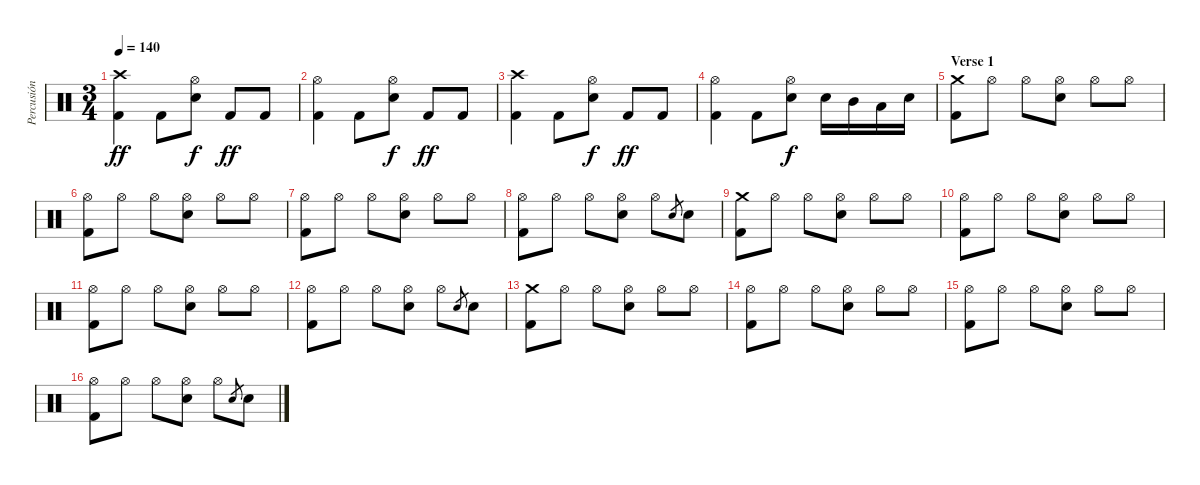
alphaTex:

\track ("Percusión" "Percusión") {instrument percussion}
\staff {score}
\articulation defaults
\ts (3 4)
\tempo 140
\clef neutral
\ks c
("Crash high (hit)" "Kick (hit) 2").4{dy ff} "Kick (hit) 2".8 ("Hi-Hat (open)" "Electric Snare (hit)").8{dy f} "Kick (hit) 2".8{dy ff} "Kick (hit) 2".8 |
("Hi-Hat (open)" "Kick (hit) 2").4 "Kick (hit) 2".8 ("Hi-Hat (open)" "Electric Snare (hit)").8{dy f} "Kick (hit) 2".8{dy ff} "Kick (hit) 2".8 |
("Crash high (hit)" "Kick (hit) 2").4 "Kick (hit) 2".8 ("Hi-Hat (open)" "Electric Snare (hit)").8{dy f} "Kick (hit) 2".8{dy ff} "Kick (hit) 2".8 |
("Hi-Hat (open)" "Kick (hit) 2").4 "Kick (hit) 2".8 ("Hi-Hat (open)" "Electric Snare (hit)").8{dy f} "Electric Snare (hit)".16 "Mid Tom (hit)".16 "Low Tom (hit)".16 "Electric Snare (hit)".16 |
\section ("" "Verse 1")
("Crash medium (hit)" "Kick (hit) 2").8 "Hi-Hat (open)".8 "Hi-Hat (open)".8 ("Hi-Hat (open)" "Electric Snare (hit)").8 "Hi-Hat (open)".8 "Hi-Hat (open)".8 |
("Hi-Hat (open)" "Kick (hit) 2").8 "Hi-Hat (open)".8 "Hi-Hat (open)".8 ("Hi-Hat (open)" "Electric Snare (hit)").8 "Hi-Hat (open)".8 "Hi-Hat (open)".8 |
("Hi-Hat (open)" "Kick (hit) 2").8 "Hi-Hat (open)".8 "Hi-Hat (open)".8 ("Hi-Hat (open)" "Electric Snare (hit)").8 "Hi-Hat (open)".8 "Hi-Hat (open)".8 |
("Hi-Hat (open)" "Kick (hit) 2").8 "Hi-Hat (open)".8 "Hi-Hat (open)".8 ("Hi-Hat (open)" "Electric Snare (hit)").8 "Hi-Hat (open)".8 "Electric Snare (hit)".8{gr} "Electric Snare (hit)".8 |
("Crash medium (hit)" "Kick (hit) 2").8 "Hi-Hat (open)".8 "Hi-Hat (open)".8 ("Hi-Hat (open)" "Electric Snare (hit)").8 "Hi-Hat (open)".8 "Hi-Hat (open)".8 |
("Hi-Hat (open)" "Kick (hit) 2").8 "Hi-Hat (open)".8 "Hi-Hat (open)".8 ("Hi-Hat (open)" "Electric Snare (hit)").8 "Hi-Hat (open)".8 "Hi-Hat (open)".8 |
("Hi-Hat (open)" "Kick (hit) 2").8 "Hi-Hat (open)".8 "Hi-Hat (open)".8 ("Hi-Hat (open)" "Electric Snare (hit)").8 "Hi-Hat (open)".8 "Hi-Hat (open)".8 |
("Hi-Hat (open)" "Kick (hit) 2").8 "Hi-Hat (open)".8 "Hi-Hat (open)".8 ("Hi-Hat (open)" "Electric Snare (hit)").8 "Hi-Hat (open)".8 "Electric Snare (hit)".8{gr} "Electric Snare (hit)".8 |
("Crash medium (hit)" "Kick (hit) 2").8 "Hi-Hat (open)".8 "Hi-Hat (open)".8 ("Hi-Hat (open)" "Electric Snare (hit)").8 "Hi-Hat (open)".8 "Hi-Hat (open)".8 |
("Hi-Hat (open)" "Kick (hit) 2").8 "Hi-Hat (open)".8 "Hi-Hat (open)".8 ("Hi-Hat (open)" "Electric Snare (hit)").8 "Hi-Hat (open)".8 "Hi-Hat (open)".8 |
("Hi-Hat (open)" "Kick (hit) 2").8 "Hi-Hat (open)".8 "Hi-Hat (open)".8 ("Hi-Hat (open)" "Electric Snare (hit)").8 "Hi-Hat (open)".8 "Hi-Hat (open)".8 |
("Hi-Hat (open)" "Kick (hit) 2").8 "Hi-Hat (open)".8 "Hi-Hat (open)".8 ("Hi-Hat (open)" "Electric Snare (hit)").8 "Hi-Hat (open)".8 "Electric Snare (hit)".8{gr} "Electric Snare (hit)".8
